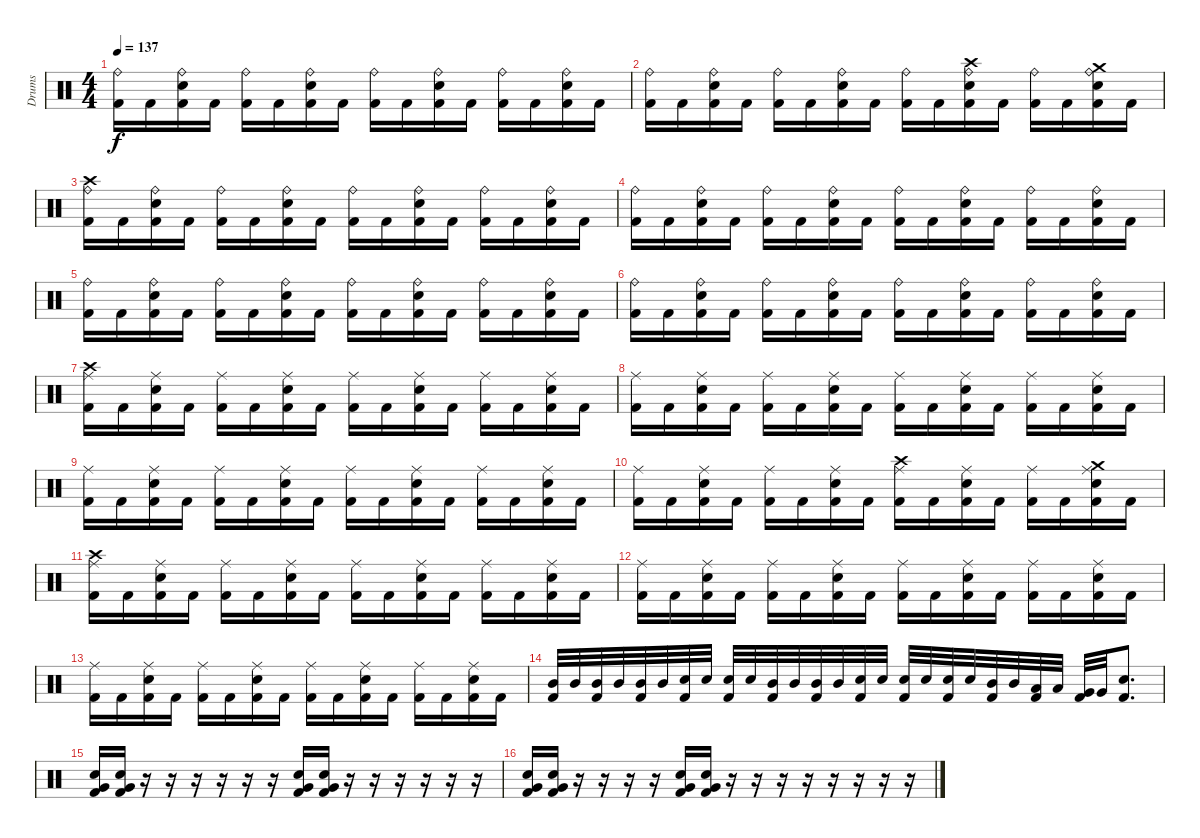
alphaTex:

\track ("Drums" "Drums") {instrument percussion}
\staff
\articulation defaults
\ts (4 4)
\tempo 137
\clef neutral
\ks c
("Ride (bell)" "Kick (hit) 2").16{dy f} "Kick (hit) 2".16 ("Ride (bell)" "Snare (hit) 2" "Kick (hit) 2").16 "Kick (hit) 2".16 ("Ride (bell)" "Kick (hit) 2").16 "Kick (hit) 2".16 ("Ride (bell)" "Snare (hit) 2" "Kick (hit) 2").16 "Kick (hit) 2".16 ("Ride (bell)" "Kick (hit) 2").16 "Kick (hit) 2".16 ("Ride (bell)" "Snare (hit) 2" "Kick (hit) 2").16 "Kick (hit) 2".16 ("Ride (bell)" "Kick (hit) 2").16 "Kick (hit) 2".16 ("Ride (bell)" "Snare (hit) 2" "Kick (hit) 2").16 "Kick (hit) 2".16 |
("Ride (bell)" "Kick (hit) 2").16 "Kick (hit) 2".16 ("Ride (bell)" "Snare (hit) 2" "Kick (hit) 2").16 "Kick (hit) 2".16 ("Ride (bell)" "Kick (hit) 2").16 "Kick (hit) 2".16 ("Ride (bell)" "Snare (hit) 2" "Kick (hit) 2").16 "Kick (hit) 2".16 ("Ride (bell)" "Kick (hit) 2").16 "Kick (hit) 2".16 ("Crash high (hit)" "Ride (bell)" "Snare (hit) 2" "Kick (hit) 2").16 "Kick (hit) 2".16 ("Ride (bell)" "Kick (hit) 2").16 "Kick (hit) 2".16 ("Crash medium (hit)" "Ride (bell)" "Snare (hit) 2" "Kick (hit) 2").16 "Kick (hit) 2".16 |
("Crash high (hit)" "Ride (bell)" "Kick (hit) 2").16 "Kick (hit) 2".16 ("Ride (bell)" "Snare (hit) 2" "Kick (hit) 2").16 "Kick (hit) 2".16 ("Ride (bell)" "Kick (hit) 2").16 "Kick (hit) 2".16 ("Ride (bell)" "Snare (hit) 2" "Kick (hit) 2").16 "Kick (hit) 2".16 ("Ride (bell)" "Kick (hit) 2").16 "Kick (hit) 2".16 ("Ride (bell)" "Snare (hit) 2" "Kick (hit) 2").16 "Kick (hit) 2".16 ("Ride (bell)" "Kick (hit) 2").16 "Kick (hit) 2".16 ("Ride (bell)" "Snare (hit) 2" "Kick (hit) 2").16 "Kick (hit) 2".16 |
("Ride (bell)" "Kick (hit) 2").16 "Kick (hit) 2".16 ("Ride (bell)" "Snare (hit) 2" "Kick (hit) 2").16 "Kick (hit) 2".16 ("Ride (bell)" "Kick (hit) 2").16 "Kick (hit) 2".16 ("Ride (bell)" "Snare (hit) 2" "Kick (hit) 2").16 "Kick (hit) 2".16 ("Ride (bell)" "Kick (hit) 2").16 "Kick (hit) 2".16 ("Ride (bell)" "Snare (hit) 2" "Kick (hit) 2").16 "Kick (hit) 2".16 ("Ride (bell)" "Kick (hit) 2").16 "Kick (hit) 2".16 ("Ride (bell)" "Snare (hit) 2" "Kick (hit) 2").16 "Kick (hit) 2".16 |
("Ride (bell)" "Kick (hit) 2").16 "Kick (hit) 2".16 ("Ride (bell)" "Snare (hit) 2" "Kick (hit) 2").16 "Kick (hit) 2".16 ("Ride (bell)" "Kick (hit) 2").16 "Kick (hit) 2".16 ("Ride (bell)" "Snare (hit) 2" "Kick (hit) 2").16 "Kick (hit) 2".16 ("Ride (bell)" "Kick (hit) 2").16 "Kick (hit) 2".16 ("Ride (bell)" "Snare (hit) 2" "Kick (hit) 2").16 "Kick (hit) 2".16 ("Ride (bell)" "Kick (hit) 2").16 "Kick (hit) 2".16 ("Ride (bell)" "Snare (hit) 2" "Kick (hit) 2").16 "Kick (hit) 2".16 |
("Ride (bell)" "Kick (hit) 2").16 "Kick (hit) 2".16 ("Ride (bell)" "Snare (hit) 2" "Kick (hit) 2").16 "Kick (hit) 2".16 ("Ride (bell)" "Kick (hit) 2").16 "Kick (hit) 2".16 ("Ride (bell)" "Snare (hit) 2" "Kick (hit) 2").16 "Kick (hit) 2".16 ("Ride (bell)" "Kick (hit) 2").16 "Kick (hit) 2".16 ("Ride (bell)" "Snare (hit) 2" "Kick (hit) 2").16 "Kick (hit) 2".16 ("Ride (bell)" "Kick (hit) 2").16 "Kick (hit) 2".16 ("Ride (bell)" "Snare (hit) 2" "Kick (hit) 2").16 "Kick (hit) 2".16 |
("Crash high (hit)" "Ride (middle)" "Kick (hit) 2").16 "Kick (hit) 2".16 ("Ride (middle)" "Snare (hit) 2" "Kick (hit) 2").16 "Kick (hit) 2".16 ("Ride (middle)" "Kick (hit) 2").16 "Kick (hit) 2".16 ("Ride (middle)" "Snare (hit) 2" "Kick (hit) 2").16 "Kick (hit) 2".16 ("Ride (middle)" "Kick (hit) 2").16 "Kick (hit) 2".16 ("Ride (middle)" "Snare (hit) 2" "Kick (hit) 2").16 "Kick (hit) 2".16 ("Ride (middle)" "Kick (hit) 2").16 "Kick (hit) 2".16 ("Ride (middle)" "Snare (hit) 2" "Kick (hit) 2").16 "Kick (hit) 2".16 |
("Ride (middle)" "Kick (hit) 2").16 "Kick (hit) 2".16 ("Ride (middle)" "Snare (hit) 2" "Kick (hit) 2").16 "Kick (hit) 2".16 ("Ride (middle)" "Kick (hit) 2").16 "Kick (hit) 2".16 ("Ride (middle)" "Snare (hit) 2" "Kick (hit) 2").16 "Kick (hit) 2".16 ("Ride (middle)" "Kick (hit) 2").16 "Kick (hit) 2".16 ("Ride (middle)" "Snare (hit) 2" "Kick (hit) 2").16 "Kick (hit) 2".16 ("Ride (middle)" "Kick (hit) 2").16 "Kick (hit) 2".16 ("Ride (middle)" "Snare (hit) 2" "Kick (hit) 2").16 "Kick (hit) 2".16 |
("Ride (middle)" "Kick (hit) 2").16 "Kick (hit) 2".16 ("Ride (middle)" "Snare (hit) 2" "Kick (hit) 2").16 "Kick (hit) 2".16 ("Ride (middle)" "Kick (hit) 2").16 "Kick (hit) 2".16 ("Ride (middle)" "Snare (hit) 2" "Kick (hit) 2").16 "Kick (hit) 2".16 ("Ride (middle)" "Kick (hit) 2").16 "Kick (hit) 2".16 ("Ride (middle)" "Snare (hit) 2" "Kick (hit) 2").16 "Kick (hit) 2".16 ("Ride (middle)" "Kick (hit) 2").16 "Kick (hit) 2".16 ("Ride (middle)" "Snare (hit) 2" "Kick (hit) 2").16 "Kick (hit) 2".16 |
("Ride (middle)" "Kick (hit) 2").16 "Kick (hit) 2".16 ("Ride (middle)" "Snare (hit) 2" "Kick (hit) 2").16 "Kick (hit) 2".16 ("Ride (middle)" "Kick (hit) 2").16 "Kick (hit) 2".16 ("Ride (middle)" "Snare (hit) 2" "Kick (hit) 2").16 "Kick (hit) 2".16 ("Crash high (hit)" "Ride (middle)" "Kick (hit) 2").16 "Kick (hit) 2".16 ("Ride (middle)" "Snare (hit) 2" "Kick (hit) 2").16 "Kick (hit) 2".16 ("Ride (middle)" "Kick (hit) 2").16 "Kick (hit) 2".16 ("Crash medium (hit)" "Ride (middle)" "Snare (hit) 2" "Kick (hit) 2").16 "Kick (hit) 2".16 |
("Crash high (hit)" "Ride (middle)" "Kick (hit) 2").16 "Kick (hit) 2".16 ("Ride (middle)" "Snare (hit) 2" "Kick (hit) 2").16 "Kick (hit) 2".16 ("Ride (middle)" "Kick (hit) 2").16 "Kick (hit) 2".16 ("Ride (middle)" "Snare (hit) 2" "Kick (hit) 2").16 "Kick (hit) 2".16 ("Ride (middle)" "Kick (hit) 2").16 "Kick (hit) 2".16 ("Ride (middle)" "Snare (hit) 2" "Kick (hit) 2").16 "Kick (hit) 2".16 ("Ride (middle)" "Kick (hit) 2").16 "Kick (hit) 2".16 ("Ride (middle)" "Snare (hit) 2" "Kick (hit) 2").16 "Kick (hit) 2".16 |
("Ride (middle)" "Kick (hit) 2").16 "Kick (hit) 2".16 ("Ride (middle)" "Snare (hit) 2" "Kick (hit) 2").16 "Kick (hit) 2".16 ("Ride (middle)" "Kick (hit) 2").16 "Kick (hit) 2".16 ("Ride (middle)" "Snare (hit) 2" "Kick (hit) 2").16 "Kick (hit) 2".16 ("Ride (middle)" "Kick (hit) 2").16 "Kick (hit) 2".16 ("Ride (middle)" "Snare (hit) 2" "Kick (hit) 2").16 "Kick (hit) 2".16 ("Ride (middle)" "Kick (hit) 2").16 "Kick (hit) 2".16 ("Ride (middle)" "Snare (hit) 2" "Kick (hit) 2").16 "Kick (hit) 2".16 |
("Ride (middle)" "Kick (hit) 2").16 "Kick (hit) 2".16 ("Ride (middle)" "Snare (hit) 2" "Kick (hit) 2").16 "Kick (hit) 2".16 ("Ride (middle)" "Kick (hit) 2").16 "Kick (hit) 2".16 ("Ride (middle)" "Snare (hit) 2" "Kick (hit) 2").16 "Kick (hit) 2".16 ("Ride (middle)" "Kick (hit) 2").16 "Kick (hit) 2".16 ("Ride (middle)" "Snare (hit) 2" "Kick (hit) 2").16 "Kick (hit) 2".16 ("Ride (middle)" "Kick (hit) 2").16 "Kick (hit) 2".16 ("Ride (middle)" "Snare (hit) 2" "Kick (hit) 2").16 "Kick (hit) 2".16 |
("Mid Tom (hit)" "Kick (hit) 2").32 "Mid Tom (hit)".32 ("Mid Tom (hit)" "Kick (hit) 2").32 "Mid Tom (hit)".32 ("Mid Tom (hit)" "Kick (hit) 2").32 "Mid Tom (hit)".32 ("Snare (hit) 2" "Kick (hit) 2").32 "Snare (hit) 2".32 ("Snare (hit) 2" "Kick (hit) 2").32 "Snare (hit) 2".32 ("Mid Tom (hit)" "Kick (hit) 2").32 "Mid Tom (hit)".32 ("Mid Tom (hit)" "Kick (hit) 2").32 "Mid Tom (hit)".32 ("Snare (hit) 2" "Kick (hit) 2").32 "Snare (hit) 2".32 ("Snare (hit) 2" "Kick (hit) 2").32 "Snare (hit) 2".32 ("Snare (hit) 2" "Kick (hit) 2").32 "Snare (hit) 2".32 ("Mid Tom (hit)" "Kick (hit) 2").32 "Mid Tom (hit)".32 ("Low Tom (hit)" "Kick (hit) 2").32 "Low Tom (hit)".32 ("Very Low Tom (hit)" "Kick (hit) 2").32 "Very Low Tom (hit)".32 ("Snare (hit) 2" "Kick (hit) 2").8{d} |
("Very Low Tom (hit)" "Snare (hit) 2" "Kick (hit) 2").16 ("Very Low Tom (hit)" "Snare (hit) 2" "Kick (hit) 2").16 r.16 r.16 r.16 r.16 r.16 r.16 ("Very Low Tom (hit)" "Snare (hit) 2" "Kick (hit) 2").16 ("Very Low Tom (hit)" "Snare (hit) 2" "Kick (hit) 2").16 r.16 r.16 r.16 r.16 r.16 r.16 |
("Very Low Tom (hit)" "Snare (hit) 2" "Kick (hit) 2").16 ("Very Low Tom (hit)" "Snare (hit) 2" "Kick (hit) 2").16 r.16 r.16 r.16 r.16 ("Very Low Tom (hit)" "Snare (hit) 2" "Kick (hit) 2").16 ("Very Low Tom (hit)" "Snare (hit) 2" "Kick (hit) 2").16 r.16 r.16 r.16 r.16 r.16 r.16 r.16 r.16
